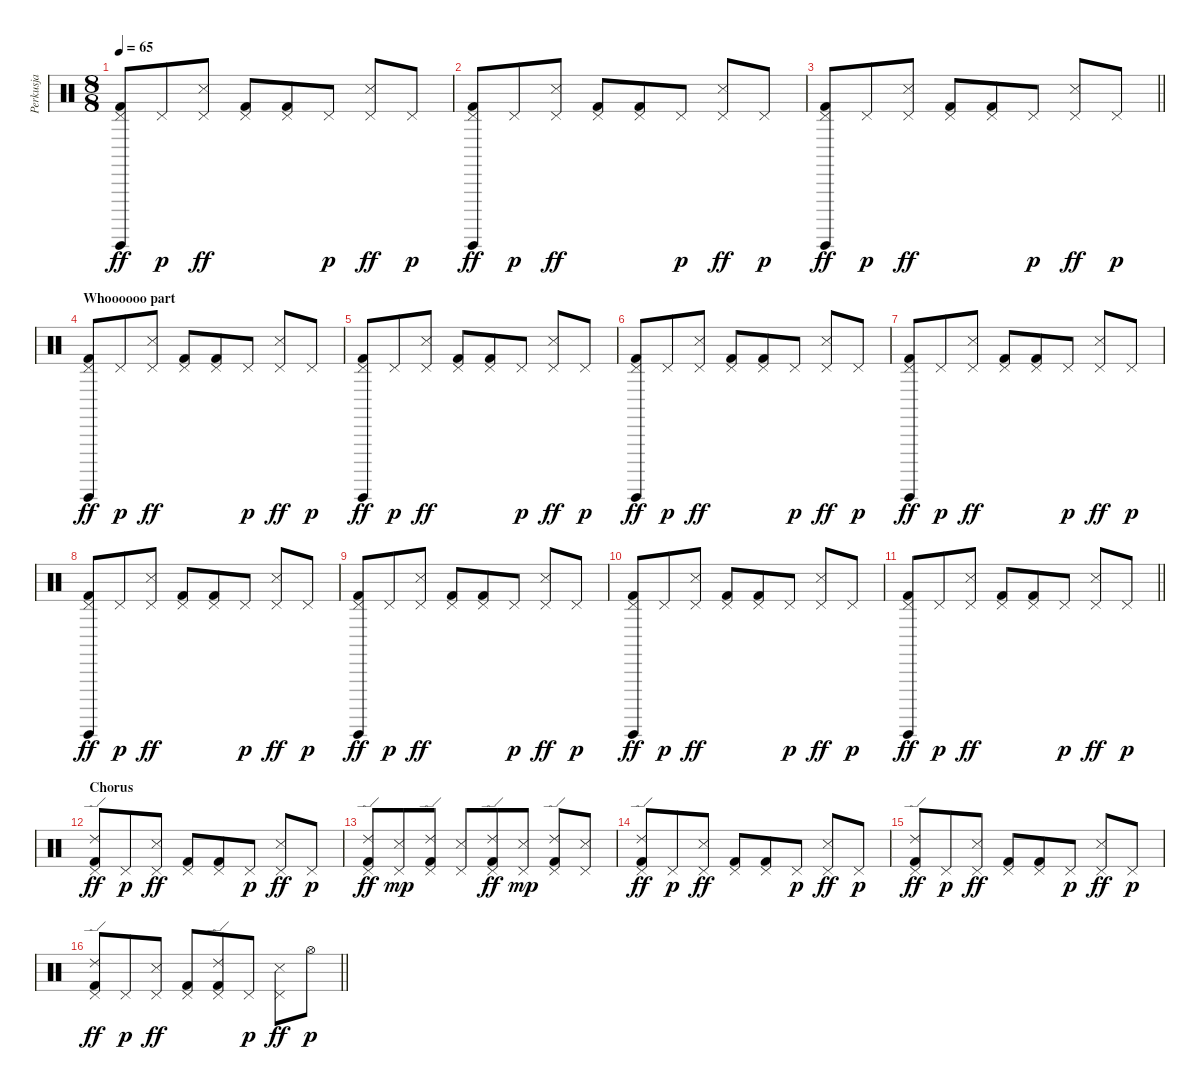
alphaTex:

\track ("Perkusja" "Perkusja") {solo instrument percussion}
\staff {score}
\articulation defaults
\ts (8 8)
\tempo 65
\clef neutral
\ks c
("Pedal Hi-Hat (hit)" "Guiro (hit)" "Kick (hit) 2").8{dy ff} "Pedal Hi-Hat (hit)".8{dy p} ("Pedal Hi-Hat (hit)" "Snare (side stick) 3").8{dy ff} ("Pedal Hi-Hat (hit)" "Kick (hit) 2").8 ("Pedal Hi-Hat (hit)" "Kick (hit) 2").8 "Pedal Hi-Hat (hit)".8{dy p} ("Pedal Hi-Hat (hit)" "Snare (side stick) 3").8{dy ff} "Pedal Hi-Hat (hit)".8{dy p} |
("Pedal Hi-Hat (hit)" "Guiro (hit)" "Kick (hit) 2").8{dy ff} "Pedal Hi-Hat (hit)".8{dy p} ("Pedal Hi-Hat (hit)" "Snare (side stick) 3").8{dy ff} ("Pedal Hi-Hat (hit)" "Kick (hit) 2").8 ("Pedal Hi-Hat (hit)" "Kick (hit) 2").8 "Pedal Hi-Hat (hit)".8{dy p} ("Pedal Hi-Hat (hit)" "Snare (side stick) 3").8{dy ff} "Pedal Hi-Hat (hit)".8{dy p} |
\barLineRight lightlight
("Pedal Hi-Hat (hit)" "Guiro (hit)" "Kick (hit) 2").8{dy ff} "Pedal Hi-Hat (hit)".8{dy p} ("Pedal Hi-Hat (hit)" "Snare (side stick) 3").8{dy ff} ("Pedal Hi-Hat (hit)" "Kick (hit) 2").8 ("Pedal Hi-Hat (hit)" "Kick (hit) 2").8 "Pedal Hi-Hat (hit)".8{dy p} ("Pedal Hi-Hat (hit)" "Snare (side stick) 3").8{dy ff} "Pedal Hi-Hat (hit)".8{dy p} |
\section ("" "Whoooooo part")
("Pedal Hi-Hat (hit)" "Guiro (hit)" "Kick (hit) 2").8{dy ff} "Pedal Hi-Hat (hit)".8{dy p} ("Pedal Hi-Hat (hit)" "Snare (side stick) 3").8{dy ff} ("Pedal Hi-Hat (hit)" "Kick (hit) 2").8 ("Pedal Hi-Hat (hit)" "Kick (hit) 2").8 "Pedal Hi-Hat (hit)".8{dy p} ("Pedal Hi-Hat (hit)" "Snare (side stick) 3").8{dy ff} "Pedal Hi-Hat (hit)".8{dy p} |
("Pedal Hi-Hat (hit)" "Guiro (hit)" "Kick (hit) 2").8{dy ff} "Pedal Hi-Hat (hit)".8{dy p} ("Pedal Hi-Hat (hit)" "Snare (side stick) 3").8{dy ff} ("Pedal Hi-Hat (hit)" "Kick (hit) 2").8 ("Pedal Hi-Hat (hit)" "Kick (hit) 2").8 "Pedal Hi-Hat (hit)".8{dy p} ("Pedal Hi-Hat (hit)" "Snare (side stick) 3").8{dy ff} "Pedal Hi-Hat (hit)".8{dy p} |
("Pedal Hi-Hat (hit)" "Guiro (hit)" "Kick (hit) 2").8{dy ff} "Pedal Hi-Hat (hit)".8{dy p} ("Pedal Hi-Hat (hit)" "Snare (side stick) 3").8{dy ff} ("Pedal Hi-Hat (hit)" "Kick (hit) 2").8 ("Pedal Hi-Hat (hit)" "Kick (hit) 2").8 "Pedal Hi-Hat (hit)".8{dy p} ("Pedal Hi-Hat (hit)" "Snare (side stick) 3").8{dy ff} "Pedal Hi-Hat (hit)".8{dy p} |
("Pedal Hi-Hat (hit)" "Guiro (hit)" "Kick (hit) 2").8{dy ff} "Pedal Hi-Hat (hit)".8{dy p} ("Pedal Hi-Hat (hit)" "Snare (side stick) 3").8{dy ff} ("Pedal Hi-Hat (hit)" "Kick (hit) 2").8 ("Pedal Hi-Hat (hit)" "Kick (hit) 2").8 "Pedal Hi-Hat (hit)".8{dy p} ("Pedal Hi-Hat (hit)" "Snare (side stick) 3").8{dy ff} "Pedal Hi-Hat (hit)".8{dy p} |
("Pedal Hi-Hat (hit)" "Guiro (hit)" "Kick (hit) 2").8{dy ff} "Pedal Hi-Hat (hit)".8{dy p} ("Pedal Hi-Hat (hit)" "Snare (side stick) 3").8{dy ff} ("Pedal Hi-Hat (hit)" "Kick (hit) 2").8 ("Pedal Hi-Hat (hit)" "Kick (hit) 2").8 "Pedal Hi-Hat (hit)".8{dy p} ("Pedal Hi-Hat (hit)" "Snare (side stick) 3").8{dy ff} "Pedal Hi-Hat (hit)".8{dy p} |
("Pedal Hi-Hat (hit)" "Guiro (hit)" "Kick (hit) 2").8{dy ff} "Pedal Hi-Hat (hit)".8{dy p} ("Pedal Hi-Hat (hit)" "Snare (side stick) 3").8{dy ff} ("Pedal Hi-Hat (hit)" "Kick (hit) 2").8 ("Pedal Hi-Hat (hit)" "Kick (hit) 2").8 "Pedal Hi-Hat (hit)".8{dy p} ("Pedal Hi-Hat (hit)" "Snare (side stick) 3").8{dy ff} "Pedal Hi-Hat (hit)".8{dy p} |
("Pedal Hi-Hat (hit)" "Guiro (hit)" "Kick (hit) 2").8{dy ff} "Pedal Hi-Hat (hit)".8{dy p} ("Pedal Hi-Hat (hit)" "Snare (side stick) 3").8{dy ff} ("Pedal Hi-Hat (hit)" "Kick (hit) 2").8 ("Pedal Hi-Hat (hit)" "Kick (hit) 2").8 "Pedal Hi-Hat (hit)".8{dy p} ("Pedal Hi-Hat (hit)" "Snare (side stick) 3").8{dy ff} "Pedal Hi-Hat (hit)".8{dy p} |
\barLineRight lightlight
("Pedal Hi-Hat (hit)" "Guiro (hit)" "Kick (hit) 2").8{dy ff} "Pedal Hi-Hat (hit)".8{dy p} ("Pedal Hi-Hat (hit)" "Snare (side stick) 3").8{dy ff} ("Pedal Hi-Hat (hit)" "Kick (hit) 2").8 ("Pedal Hi-Hat (hit)" "Kick (hit) 2").8 "Pedal Hi-Hat (hit)".8{dy p} ("Pedal Hi-Hat (hit)" "Snare (side stick) 3").8{dy ff} "Pedal Hi-Hat (hit)".8{dy p} |
\section ("" "Chorus")
("Pedal Hi-Hat (hit)" "Ride (edge) 2" "Kick (hit) 2").8{dy ff} "Pedal Hi-Hat (hit)".8{dy p} ("Pedal Hi-Hat (hit)" "Snare (side stick) 3").8{dy ff} ("Pedal Hi-Hat (hit)" "Kick (hit) 2").8 ("Pedal Hi-Hat (hit)" "Kick (hit) 2").8 "Pedal Hi-Hat (hit)".8{dy p} ("Pedal Hi-Hat (hit)" "Snare (side stick) 3").8{dy ff} "Pedal Hi-Hat (hit)".8{dy p} |
("Pedal Hi-Hat (hit)" "Ride (edge) 2" "Kick (hit) 2").8{dy ff} ("Pedal Hi-Hat (hit)" "Snare (side stick) 3").8{dy mp} ("Pedal Hi-Hat (hit)" "Ride (edge) 2" "Kick (hit) 2").8 ("Pedal Hi-Hat (hit)" "Snare (side stick) 3").8 ("Pedal Hi-Hat (hit)" "Ride (edge) 2" "Kick (hit) 2").8{dy ff} ("Pedal Hi-Hat (hit)" "Snare (side stick) 3").8{dy mp} ("Pedal Hi-Hat (hit)" "Ride (edge) 2" "Kick (hit) 2").8 ("Pedal Hi-Hat (hit)" "Snare (side stick) 3").8 |
("Pedal Hi-Hat (hit)" "Ride (edge) 2" "Kick (hit) 2").8{dy ff} "Pedal Hi-Hat (hit)".8{dy p} ("Pedal Hi-Hat (hit)" "Snare (side stick) 3").8{dy ff} ("Pedal Hi-Hat (hit)" "Kick (hit) 2").8 ("Pedal Hi-Hat (hit)" "Kick (hit) 2").8 "Pedal Hi-Hat (hit)".8{dy p} ("Pedal Hi-Hat (hit)" "Snare (side stick) 3").8{dy ff} "Pedal Hi-Hat (hit)".8{dy p} |
("Pedal Hi-Hat (hit)" "Ride (edge) 2" "Kick (hit) 2").8{dy ff} "Pedal Hi-Hat (hit)".8{dy p} ("Pedal Hi-Hat (hit)" "Snare (side stick) 3").8{dy ff} ("Pedal Hi-Hat (hit)" "Kick (hit) 2").8 ("Pedal Hi-Hat (hit)" "Kick (hit) 2").8 "Pedal Hi-Hat (hit)".8{dy p} ("Pedal Hi-Hat (hit)" "Snare (side stick) 3").8{dy ff} "Pedal Hi-Hat (hit)".8{dy p} |
\barLineRight lightlight
("Pedal Hi-Hat (hit)" "Ride (edge) 2" "Kick (hit) 2").8{dy ff} "Pedal Hi-Hat (hit)".8{dy p} ("Pedal Hi-Hat (hit)" "Snare (side stick) 3").8{dy ff} ("Pedal Hi-Hat (hit)" "Kick (hit) 2").8 ("Pedal Hi-Hat (hit)" "Ride (edge) 2" "Kick (hit) 2").8 "Pedal Hi-Hat (hit)".8{dy p} ("Pedal Hi-Hat (hit)" "Snare (side stick) 3").8{dy ff} "Hi-Hat (open)".8{dy p}
